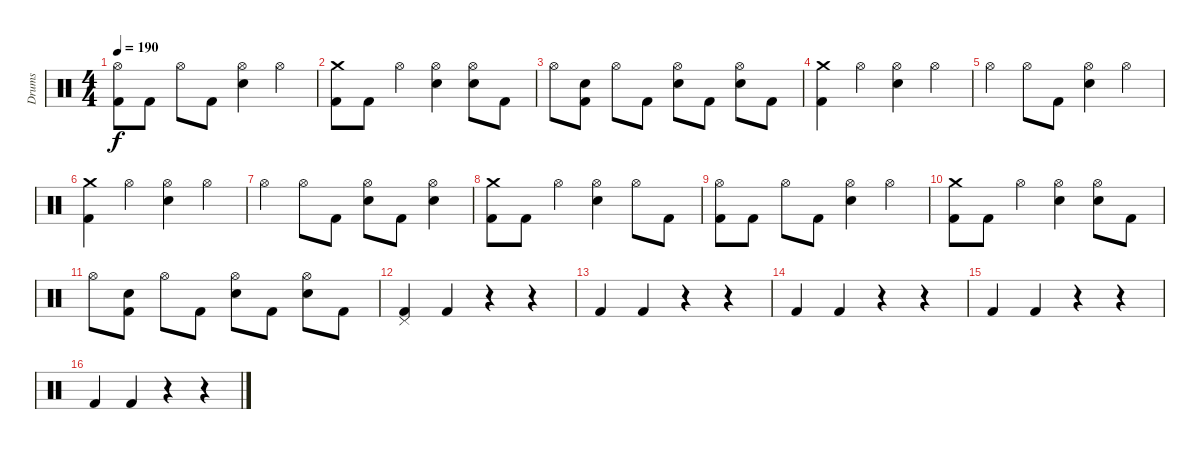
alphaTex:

\track ("Drums" "Drums") {instrument percussion}
\staff {score}
\articulation defaults
\ts (4 4)
\tempo 190
\clef neutral
\ks c
("Kick (hit) 2" "Hi-Hat (open)").8{dy f} "Kick (hit) 2".8 "Hi-Hat (open)".8 "Kick (hit) 2".8 ("Snare (hit) 2" "Hi-Hat (open)").4 "Hi-Hat (open)".4 |
("Kick (hit) 2" "Crash medium (hit)").8 "Kick (hit) 2".8 "Hi-Hat (open)".4 ("Snare (hit) 2" "Hi-Hat (open)").4 ("Snare (hit) 2" "Hi-Hat (open)").8 "Kick (hit) 2".8 |
"Hi-Hat (open)".8 ("Kick (hit) 2" "Snare (hit) 2").8 "Hi-Hat (open)".8 "Kick (hit) 2".8 ("Snare (hit) 2" "Hi-Hat (open)").8 "Kick (hit) 2".8 ("Snare (hit) 2" "Hi-Hat (open)").8 "Kick (hit) 2".8 |
("Kick (hit) 2" "Crash medium (hit)").4 "Hi-Hat (open)".4 ("Snare (hit) 2" "Hi-Hat (open)").4 "Hi-Hat (open)".4 |
"Hi-Hat (open)".4 "Hi-Hat (open)".8 "Kick (hit) 2".8 ("Snare (hit) 2" "Hi-Hat (open)").4 "Hi-Hat (open)".4 |
("Kick (hit) 2" "Crash medium (hit)").4 "Hi-Hat (open)".4 ("Snare (hit) 2" "Hi-Hat (open)").4 "Hi-Hat (open)".4 |
"Hi-Hat (open)".4 "Hi-Hat (open)".8 "Kick (hit) 2".8 ("Snare (hit) 2" "Hi-Hat (open)").8 "Kick (hit) 2".8 ("Snare (hit) 2" "Hi-Hat (open)").4 |
("Kick (hit) 2" "Crash medium (hit)").8 "Kick (hit) 2".8 "Hi-Hat (open)".4 ("Snare (hit) 2" "Hi-Hat (open)").4 "Hi-Hat (open)".8 "Kick (hit) 2".8 |
("Kick (hit) 2" "Hi-Hat (open)").8 "Kick (hit) 2".8 "Hi-Hat (open)".8 "Kick (hit) 2".8 ("Snare (hit) 2" "Hi-Hat (open)").4 "Hi-Hat (open)".4 |
("Kick (hit) 2" "Crash medium (hit)").8 "Kick (hit) 2".8 "Hi-Hat (open)".4 ("Snare (hit) 2" "Hi-Hat (open)").4 ("Snare (hit) 2" "Hi-Hat (open)").8 "Kick (hit) 2".8 |
"Hi-Hat (open)".8 ("Kick (hit) 2" "Snare (hit) 2").8 "Hi-Hat (open)".8 "Kick (hit) 2".8 ("Snare (hit) 2" "Hi-Hat (open)").8 "Kick (hit) 2".8 ("Snare (hit) 2" "Hi-Hat (open)").8 "Kick (hit) 2".8 |
("Kick (hit) 2" "Pedal Hi-Hat (hit)").4 "Kick (hit) 2".4 r.4 r.4 |
"Kick (hit) 2".4 "Kick (hit) 2".4 r.4 r.4 |
"Kick (hit) 2".4 "Kick (hit) 2".4 r.4 r.4 |
"Kick (hit) 2".4 "Kick (hit) 2".4 r.4 r.4 |
"Kick (hit) 2".4 "Kick (hit) 2".4 r.4 r.4
